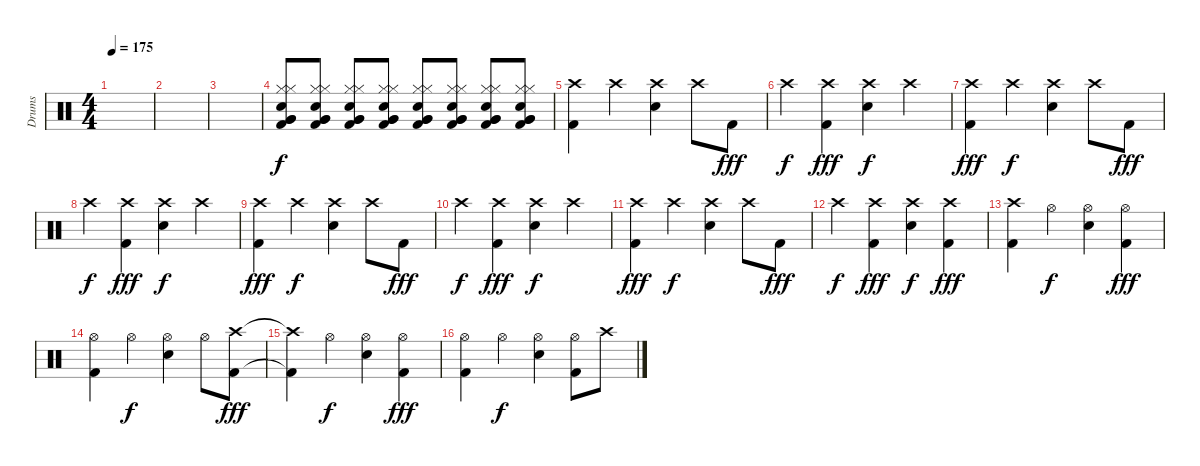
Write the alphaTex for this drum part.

\track ("Drums" "Drums") {instrument percussion}
\staff {score}
\articulation defaults
\ts (4 4)
\tempo 175
\clef neutral
\ks c
|
|
|
("Very Low Tom (hit)" "Very Low Tom (hit)" "Hi-Hat (closed)" "Hi-Hat (closed)" "Snare (hit) 2" "Kick (hit) 2").8 ("Very Low Tom (hit)" "Very Low Tom (hit)" "Hi-Hat (closed)" "Hi-Hat (closed)" "Snare (hit) 2" "Kick (hit) 2").8 ("Very Low Tom (hit)" "Very Low Tom (hit)" "Hi-Hat (closed)" "Hi-Hat (closed)" "Snare (hit) 2" "Kick (hit) 2").8 ("Very Low Tom (hit)" "Very Low Tom (hit)" "Hi-Hat (closed)" "Hi-Hat (closed)" "Snare (hit) 2" "Kick (hit) 2").8 ("Very Low Tom (hit)" "Very Low Tom (hit)" "Hi-Hat (closed)" "Hi-Hat (closed)" "Snare (hit) 2" "Kick (hit) 2").8 ("Very Low Tom (hit)" "Very Low Tom (hit)" "Hi-Hat (closed)" "Hi-Hat (closed)" "Snare (hit) 2" "Kick (hit) 2").8 ("Very Low Tom (hit)" "Very Low Tom (hit)" "Hi-Hat (closed)" "Hi-Hat (closed)" "Snare (hit) 2" "Kick (hit) 2").8 ("Very Low Tom (hit)" "Very Low Tom (hit)" "Hi-Hat (closed)" "Hi-Hat (closed)" "Snare (hit) 2" "Kick (hit) 2").8 |
("Crash high (hit)" "Kick (hit) 2").4 "Crash high (hit)".4{dy f} ("Crash high (hit)" "Electric Snare (hit)").4 "Crash high (hit)".8 "Kick (hit) 2".8{dy fff} |
"Crash high (hit)".4{dy f} ("Crash high (hit)" "Kick (hit) 2").4{dy fff} ("Crash high (hit)" "Electric Snare (hit)").4{dy f} "Crash high (hit)".4 |
("Crash high (hit)" "Kick (hit) 2").4{dy fff} "Crash high (hit)".4{dy f} ("Crash high (hit)" "Electric Snare (hit)").4 "Crash high (hit)".8 "Kick (hit) 2".8{dy fff} |
"Crash high (hit)".4{dy f} ("Crash high (hit)" "Kick (hit) 2").4{dy fff} ("Crash high (hit)" "Electric Snare (hit)").4{dy f} "Crash high (hit)".4 |
("Crash high (hit)" "Kick (hit) 2").4{dy fff} "Crash high (hit)".4{dy f} ("Crash high (hit)" "Electric Snare (hit)").4 "Crash high (hit)".8 "Kick (hit) 2".8{dy fff} |
"Crash high (hit)".4{dy f} ("Crash high (hit)" "Kick (hit) 2").4{dy fff} ("Crash high (hit)" "Electric Snare (hit)").4{dy f} "Crash high (hit)".4 |
("Crash high (hit)" "Kick (hit) 2").4{dy fff} "Crash high (hit)".4{dy f} ("Crash high (hit)" "Electric Snare (hit)").4 "Crash high (hit)".8 "Kick (hit) 2".8{dy fff} |
"Crash high (hit)".4{dy f} ("Crash high (hit)" "Kick (hit) 2").4{dy fff} ("Crash high (hit)" "Electric Snare (hit)").4{dy f} ("Crash high (hit)" "Kick (hit) 2").4{dy fff} |
("Crash high (hit)" "Kick (hit) 2").4 "Hi-Hat (open)".4{dy f} ("Hi-Hat (open)" "Electric Snare (hit)").4 ("Hi-Hat (open)" "Kick (hit) 2").4{dy fff} |
("Hi-Hat (open)" "Kick (hit) 2").4 "Hi-Hat (open)".4{dy f} ("Hi-Hat (open)" "Electric Snare (hit)").4 "Hi-Hat (open)".8 ("Crash high (hit)" "Kick (hit) 2").8{dy fff} |
("Crash high (hit)"{t} "Kick (hit) 2"{t}).4 "Hi-Hat (open)".4{dy f} ("Hi-Hat (open)" "Electric Snare (hit)").4 ("Hi-Hat (open)" "Kick (hit) 2").4{dy fff} |
("Hi-Hat (open)" "Kick (hit) 2").4 "Hi-Hat (open)".4{dy f} ("Hi-Hat (open)" "Electric Snare (hit)").4 ("Hi-Hat (open)" "Kick (hit) 2").8 "Crash high (hit)".8
